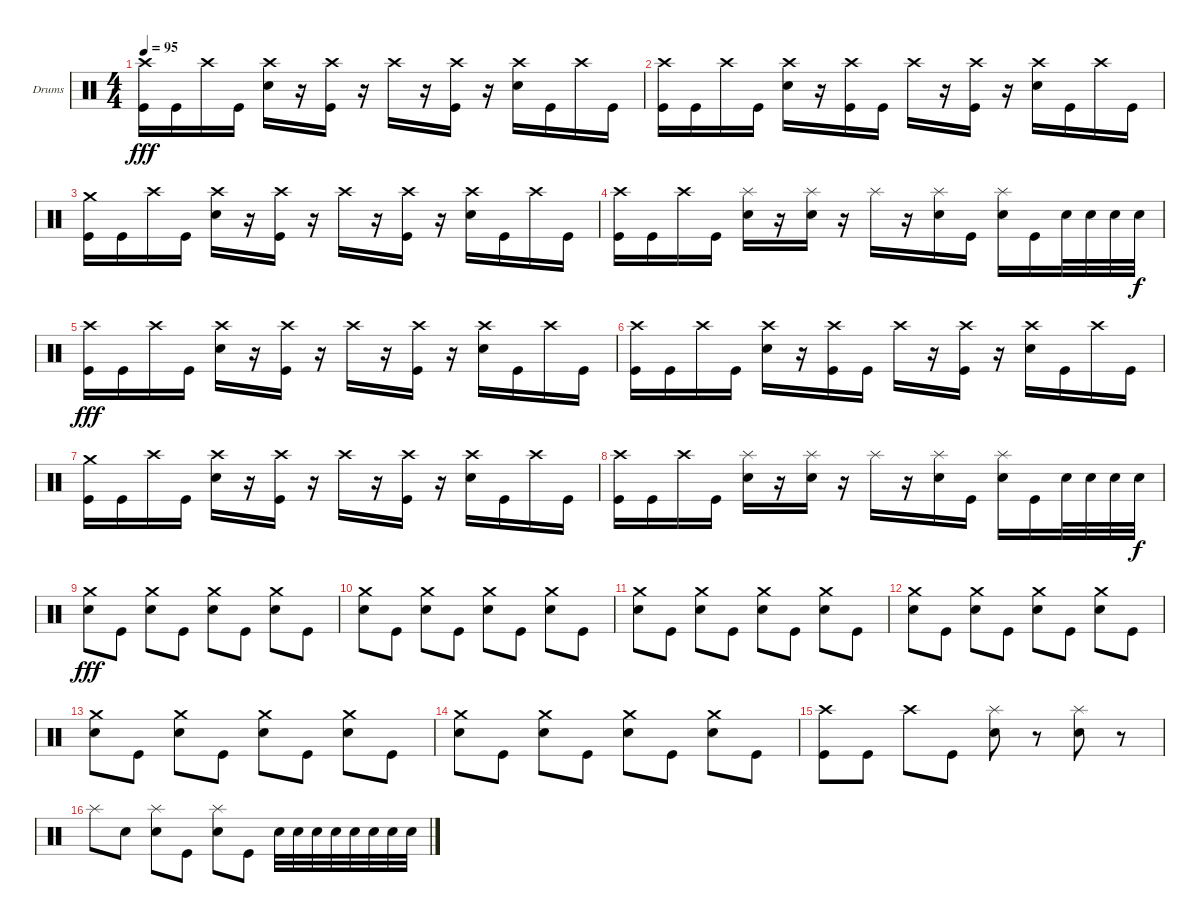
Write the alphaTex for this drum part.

\bracketExtendMode groupsimilarinstruments
\firstSystemTrackNameOrientation horizontal
\otherSystemsTrackNameOrientation horizontal
\track ("Drumkit" "Drums") {instrument percussion}
\staff {score}
\articulation defaults
\ts (4 4)
\tempo 95
\clef neutral
\ks c
("Crash high (hit)" "Kick (hit)").16{dy fff} "Kick (hit)".16 "Crash high (hit)".16 "Kick (hit)".16 ("Crash high (hit)" "Snare (hit) 2").16 r.16 ("Crash high (hit)" "Kick (hit)").16 r.16 "Crash high (hit)".16 r.16 ("Crash high (hit)" "Kick (hit)").16 r.16 ("Crash high (hit)" "Snare (hit) 2").16 "Kick (hit)".16 "Crash high (hit)".16 "Kick (hit)".16 |
("Crash high (hit)" "Kick (hit)").16 "Kick (hit)".16 "Crash high (hit)".16 "Kick (hit)".16 ("Crash high (hit)" "Snare (hit) 2").16 r.16 ("Crash high (hit)" "Kick (hit)").16 "Kick (hit)".16 "Crash high (hit)".16 r.16 ("Crash high (hit)" "Kick (hit)").16 r.16 ("Crash high (hit)" "Snare (hit) 2").16 "Kick (hit)".16 "Crash high (hit)".16 "Kick (hit)".16 |
("Crash medium (hit)" "Kick (hit)").16 "Kick (hit)".16 "Crash high (hit)".16 "Kick (hit)".16 ("Crash high (hit)" "Snare (hit) 2").16 r.16 ("Crash high (hit)" "Kick (hit)").16 r.16 "Crash high (hit)".16 r.16 ("Crash high (hit)" "Kick (hit)").16 r.16 ("Crash high (hit)" "Snare (hit) 2").16 "Kick (hit)".16 "Crash high (hit)".16 "Kick (hit)".16 |
("Crash high (hit)" "Kick (hit)").16 "Kick (hit)".16 "Crash high (hit)".16 "Kick (hit)".16 ("Splash (hit)" "Snare (hit) 2").16 r.16 ("Splash (hit)" "Snare (hit) 2").16 r.16 "Splash (hit)".16 r.16 ("Splash (hit)" "Snare (hit) 2").16 "Kick (hit)".16 ("Splash (hit)" "Snare (hit) 2").16 "Kick (hit)".16 "Snare (hit) 2".32 "Snare (hit) 2".32 "Snare (hit) 2".32 "Snare (hit) 2".32{dy f} |
("Crash high (hit)" "Kick (hit)").16{dy fff} "Kick (hit)".16 "Crash high (hit)".16 "Kick (hit)".16 ("Crash high (hit)" "Snare (hit) 2").16 r.16 ("Crash high (hit)" "Kick (hit)").16 r.16 "Crash high (hit)".16 r.16 ("Crash high (hit)" "Kick (hit)").16 r.16 ("Crash high (hit)" "Snare (hit) 2").16 "Kick (hit)".16 "Crash high (hit)".16 "Kick (hit)".16 |
("Crash high (hit)" "Kick (hit)").16 "Kick (hit)".16 "Crash high (hit)".16 "Kick (hit)".16 ("Crash high (hit)" "Snare (hit) 2").16 r.16 ("Crash high (hit)" "Kick (hit)").16 "Kick (hit)".16 "Crash high (hit)".16 r.16 ("Crash high (hit)" "Kick (hit)").16 r.16 ("Crash high (hit)" "Snare (hit) 2").16 "Kick (hit)".16 "Crash high (hit)".16 "Kick (hit)".16 |
("Crash medium (hit)" "Kick (hit)").16 "Kick (hit)".16 "Crash high (hit)".16 "Kick (hit)".16 ("Crash high (hit)" "Snare (hit) 2").16 r.16 ("Crash high (hit)" "Kick (hit)").16 r.16 "Crash high (hit)".16 r.16 ("Crash high (hit)" "Kick (hit)").16 r.16 ("Crash high (hit)" "Snare (hit) 2").16 "Kick (hit)".16 "Crash high (hit)".16 "Kick (hit)".16 |
("Crash high (hit)" "Kick (hit)").16 "Kick (hit)".16 "Crash high (hit)".16 "Kick (hit)".16 ("Splash (hit)" "Snare (hit) 2").16 r.16 ("Splash (hit)" "Snare (hit) 2").16 r.16 "Splash (hit)".16 r.16 ("Splash (hit)" "Snare (hit) 2").16 "Kick (hit)".16 ("Splash (hit)" "Snare (hit) 2").16 "Kick (hit)".16 "Snare (hit) 2".32 "Snare (hit) 2".32 "Snare (hit) 2".32 "Snare (hit) 2".32{dy f} |
("Crash medium (hit)" "Snare (hit) 2").8{dy fff} "Kick (hit)".8 ("Crash medium (hit)" "Snare (hit) 2").8 "Kick (hit)".8 ("Crash medium (hit)" "Snare (hit) 2").8 "Kick (hit)".8 ("Crash medium (hit)" "Snare (hit) 2").8 "Kick (hit)".8 |
("Crash medium (hit)" "Snare (hit) 2").8 "Kick (hit)".8 ("Crash medium (hit)" "Snare (hit) 2").8 "Kick (hit)".8 ("Crash medium (hit)" "Snare (hit) 2").8 "Kick (hit)".8 ("Crash medium (hit)" "Snare (hit) 2").8 "Kick (hit)".8 |
("Crash medium (hit)" "Snare (hit) 2").8 "Kick (hit)".8 ("Crash medium (hit)" "Snare (hit) 2").8 "Kick (hit)".8 ("Crash medium (hit)" "Snare (hit) 2").8 "Kick (hit)".8 ("Crash medium (hit)" "Snare (hit) 2").8 "Kick (hit)".8 |
("Crash medium (hit)" "Snare (hit) 2").8 "Kick (hit)".8 ("Crash medium (hit)" "Snare (hit) 2").8 "Kick (hit)".8 ("Crash medium (hit)" "Snare (hit) 2").8 "Kick (hit)".8 ("Crash medium (hit)" "Snare (hit) 2").8 "Kick (hit)".8 |
("Crash medium (hit)" "Snare (hit) 2").8 "Kick (hit)".8 ("Crash medium (hit)" "Snare (hit) 2").8 "Kick (hit)".8 ("Crash medium (hit)" "Snare (hit) 2").8 "Kick (hit)".8 ("Crash medium (hit)" "Snare (hit) 2").8 "Kick (hit)".8 |
("Crash medium (hit)" "Snare (hit) 2").8 "Kick (hit)".8 ("Crash medium (hit)" "Snare (hit) 2").8 "Kick (hit)".8 ("Crash medium (hit)" "Snare (hit) 2").8 "Kick (hit)".8 ("Crash medium (hit)" "Snare (hit) 2").8 "Kick (hit)".8 |
("Crash high (hit)" "Kick (hit)").8 "Kick (hit)".8 "Crash high (hit)".8 "Kick (hit)".8 ("Splash (hit)" "Snare (hit) 2").8 r.8 ("Splash (hit)" "Snare (hit) 2").8 r.8 |
"Splash (hit)".8 "Snare (hit) 2".8 ("Splash (hit)" "Snare (hit) 2").8 "Kick (hit)".8 ("Splash (hit)" "Snare (hit) 2").8 "Kick (hit)".8 "Snare (hit) 2".32 "Snare (hit) 2".32 "Snare (hit) 2".32 "Snare (hit) 2".32 "Snare (hit) 2".32 "Snare (hit) 2".32 "Snare (hit) 2".32 "Snare (hit) 2".32
